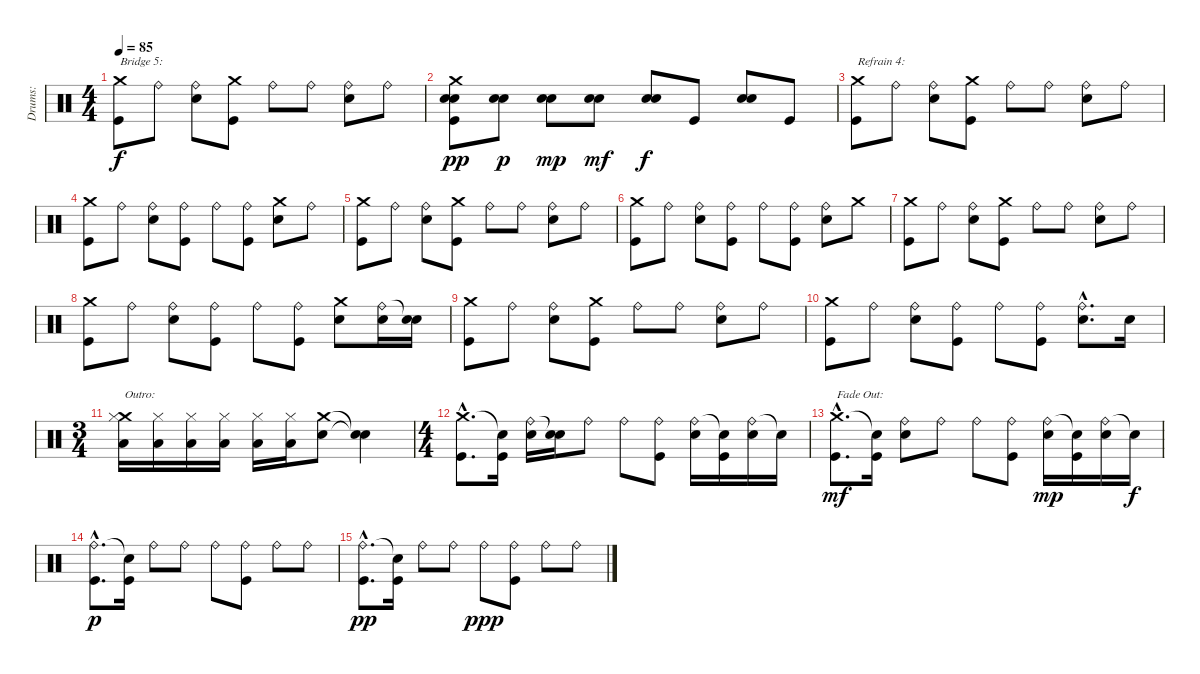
\track ("Drums:" "Drums:") {instrument percussion}
\staff {score}
\articulation defaults
\ts (4 4)
\tempo 85
\clef neutral
\ks c
("Crash medium (hit)" "Kick (hit)").8{txt "Bridge 5:" dy f} "Ride (bell)".8 ("Ride (bell)" "Snare (hit) 2").8 ("Crash medium (hit)" "Kick (hit)").8 "Ride (bell)".8 "Ride (bell)".8 ("Ride (bell)" "Snare (hit) 2").8 "Ride (bell)".8 |
("Crash medium (hit)" "Electric Snare (hit)" "Snare (hit) 2" "Kick (hit)").8{dy pp} ("Electric Snare (hit)" "Snare (hit) 2").8{dy p} ("Electric Snare (hit)" "Snare (hit) 2").8{dy mp} ("Electric Snare (hit)" "Snare (hit) 2").8{dy mf} ("Electric Snare (hit)" "Snare (hit) 2").8{dy f} "Kick (hit)".8 ("Electric Snare (hit)" "Snare (hit) 2").8 "Kick (hit)".8 |
("Crash medium (hit)" "Kick (hit)").8{txt "Refrain 4:"} "Ride (bell)".8 ("Ride (bell)" "Snare (hit) 2").8 ("Crash medium (hit)" "Kick (hit)").8 "Ride (bell)".8 "Ride (bell)".8 ("Ride (bell)" "Snare (hit) 2").8 "Ride (bell)".8 |
("Crash medium (hit)" "Kick (hit)").8 "Ride (bell)".8 ("Ride (bell)" "Snare (hit) 2").8 ("Ride (bell)" "Kick (hit)").8 "Ride (bell)".8 ("Ride (bell)" "Kick (hit)").8 ("Crash medium (hit)" "Snare (hit) 2").8 "Ride (bell)".8 |
("Crash medium (hit)" "Kick (hit)").8 "Ride (bell)".8 ("Ride (bell)" "Snare (hit) 2").8 ("Crash medium (hit)" "Kick (hit)").8 "Ride (bell)".8 "Ride (bell)".8 ("Ride (bell)" "Snare (hit) 2").8 "Ride (bell)".8 |
("Crash medium (hit)" "Kick (hit)").8 "Ride (bell)".8 ("Ride (bell)" "Snare (hit) 2").8 ("Ride (bell)" "Kick (hit)").8 "Ride (bell)".8 ("Ride (bell)" "Kick (hit)").8 ("Ride (bell)" "Snare (hit) 2").8 "Crash medium (hit)".8 |
("Crash medium (hit)" "Kick (hit)").8 "Ride (bell)".8 ("Ride (bell)" "Snare (hit) 2").8 ("Crash medium (hit)" "Kick (hit)").8 "Ride (bell)".8 "Ride (bell)".8 ("Ride (bell)" "Snare (hit) 2").8 "Ride (bell)".8 |
("Crash medium (hit)" "Kick (hit)").8 "Ride (bell)".8 ("Ride (bell)" "Snare (hit) 2").8 ("Ride (bell)" "Kick (hit)").8 "Ride (bell)".8 ("Ride (bell)" "Kick (hit)").8 ("Crash medium (hit)" "Snare (hit) 2").8 ("Ride (bell)" "Snare (hit) 2").16 ("Snare (hit)"{t} "Snare (hit) 2").16 |
("Crash medium (hit)" "Kick (hit)").8 "Ride (bell)".8 ("Ride (bell)" "Snare (hit) 2").8 ("Crash medium (hit)" "Kick (hit)").8 "Ride (bell)".8 "Ride (bell)".8 ("Ride (bell)" "Snare (hit) 2").8 "Ride (bell)".8 |
("Crash medium (hit)" "Kick (hit)").8 "Ride (bell)".8 ("Ride (bell)" "Snare (hit) 2").8 ("Ride (bell)" "Kick (hit)").8 "Ride (bell)".8 ("Ride (bell)" "Kick (hit)").8 ("Ride (bell)"{hac} "Snare (hit) 2"{hac}).8{d} "Snare (hit) 2".16 |
\ts (3 4)
("Crash medium (hit)" "Low Tom (hit)" "Hi-Hat (closed)").16{txt "Outro:"} ("Low Tom (hit)" "Hi-Hat (closed)").16 ("Low Tom (hit)" "Hi-Hat (closed)").16 ("Low Tom (hit)" "Hi-Hat (closed)").16 ("Low Tom (hit)" "Hi-Hat (closed)").16 ("Low Tom (hit)" "Hi-Hat (closed)").16 ("Crash medium (hit)" "Snare (hit) 2").8 ("Snare (hit)"{t} "Snare (hit)"{t}).4 |
\ts (4 4)
("Crash medium (hit)"{hac} "Kick (hit)"{hac}).8{d} ("Snare (hit)"{t} "Kick (hit)").16 ("Ride (bell)" "Snare (hit) 2").16 ("Snare (hit)"{t} "Snare (hit) 2").16 "Ride (bell)".8 "Ride (bell)".8 ("Ride (bell)" "Kick (hit)").8 ("Ride (bell)" "Snare (hit) 2").16 ("Snare (hit)"{t} "Kick (hit)").16 ("Ride (bell)" "Snare (hit) 2").16 "Snare (hit)"{t}.16 |
("Crash medium (hit)"{hac} "Kick (hit)"{hac}).8{d txt "Fade Out:" dy mf} ("Snare (hit)"{t} "Kick (hit)").16 ("Ride (bell)" "Snare (hit) 2").8 "Ride (bell)".8 "Ride (bell)".8 ("Ride (bell)" "Kick (hit)").8 ("Ride (bell)" "Snare (hit) 2").16{dy mp} ("Snare (hit)"{t} "Kick (hit)").16 ("Ride (bell)" "Snare (hit) 2").16 "Snare (hit)"{t}.16{dy f} |
("Ride (bell)"{hac} "Kick (hit)"{hac}).8{d dy p} ("Snare (hit)"{t} "Kick (hit)").16 "Ride (bell)".8 "Ride (bell)".8 "Ride (bell)".8 ("Ride (bell)" "Kick (hit)").8 "Ride (bell)".8 "Ride (bell)".8 |
("Ride (bell)"{hac} "Kick (hit)"{hac}).8{d dy pp} ("Snare (hit)"{t} "Kick (hit)").16 "Ride (bell)".8 "Ride (bell)".8 "Ride (bell)".8{dy ppp} ("Ride (bell)" "Kick (hit)").8 "Ride (bell)".8 "Ride (bell)".8
